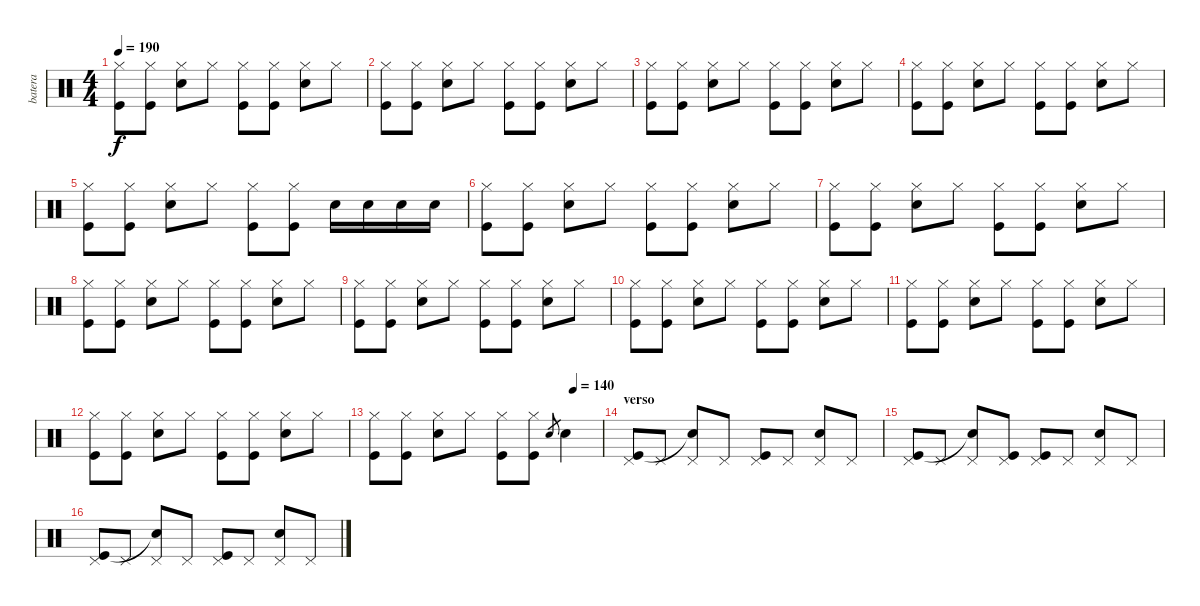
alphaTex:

\track ("batera" "batera") {instrument percussion}
\staff {score}
\articulation defaults
\ts (4 4)
\tempo 190
\clef neutral
\ks c
("Hi-Hat (closed)" "Kick (hit)").8{dy f} ("Hi-Hat (closed)" "Kick (hit)").8 ("Hi-Hat (closed)" "Snare (hit) 2").8 "Hi-Hat (closed)".8 ("Hi-Hat (closed)" "Kick (hit)").8 ("Hi-Hat (closed)" "Kick (hit)").8 ("Hi-Hat (closed)" "Snare (hit) 2").8 "Hi-Hat (closed)".8 |
("Hi-Hat (closed)" "Kick (hit)").8 ("Hi-Hat (closed)" "Kick (hit)").8 ("Hi-Hat (closed)" "Snare (hit) 2").8 "Hi-Hat (closed)".8 ("Hi-Hat (closed)" "Kick (hit)").8 ("Hi-Hat (closed)" "Kick (hit)").8 ("Hi-Hat (closed)" "Snare (hit) 2").8 "Hi-Hat (closed)".8 |
("Hi-Hat (closed)" "Kick (hit)").8 ("Hi-Hat (closed)" "Kick (hit)").8 ("Hi-Hat (closed)" "Snare (hit) 2").8 "Hi-Hat (closed)".8 ("Hi-Hat (closed)" "Kick (hit)").8 ("Hi-Hat (closed)" "Kick (hit)").8 ("Hi-Hat (closed)" "Snare (hit) 2").8 "Hi-Hat (closed)".8 |
("Hi-Hat (closed)" "Kick (hit)").8 ("Hi-Hat (closed)" "Kick (hit)").8 ("Hi-Hat (closed)" "Snare (hit) 2").8 "Hi-Hat (closed)".8 ("Hi-Hat (closed)" "Kick (hit)").8 ("Hi-Hat (closed)" "Kick (hit)").8 ("Hi-Hat (closed)" "Snare (hit) 2").8 "Hi-Hat (closed)".8 |
("Hi-Hat (closed)" "Kick (hit)").8 ("Hi-Hat (closed)" "Kick (hit)").8 ("Hi-Hat (closed)" "Snare (hit) 2").8 "Hi-Hat (closed)".8 ("Hi-Hat (closed)" "Kick (hit)").8 ("Hi-Hat (closed)" "Kick (hit)").8 "Snare (hit) 2".16 "Snare (hit) 2".16 "Snare (hit) 2".16 "Snare (hit) 2".16 |
("Hi-Hat (closed)" "Kick (hit)").8 ("Hi-Hat (closed)" "Kick (hit)").8 ("Hi-Hat (closed)" "Snare (hit) 2").8 "Hi-Hat (closed)".8 ("Hi-Hat (closed)" "Kick (hit)").8 ("Hi-Hat (closed)" "Kick (hit)").8 ("Hi-Hat (closed)" "Snare (hit) 2").8 "Hi-Hat (closed)".8 |
("Hi-Hat (closed)" "Kick (hit)").8 ("Hi-Hat (closed)" "Kick (hit)").8 ("Hi-Hat (closed)" "Snare (hit) 2").8 "Hi-Hat (closed)".8 ("Hi-Hat (closed)" "Kick (hit)").8 ("Hi-Hat (closed)" "Kick (hit)").8 ("Hi-Hat (closed)" "Snare (hit) 2").8 "Hi-Hat (closed)".8 |
("Hi-Hat (closed)" "Kick (hit)").8 ("Hi-Hat (closed)" "Kick (hit)").8 ("Hi-Hat (closed)" "Snare (hit) 2").8 "Hi-Hat (closed)".8 ("Hi-Hat (closed)" "Kick (hit)").8 ("Hi-Hat (closed)" "Kick (hit)").8 ("Hi-Hat (closed)" "Snare (hit) 2").8 "Hi-Hat (closed)".8 |
("Hi-Hat (closed)" "Kick (hit)").8 ("Hi-Hat (closed)" "Kick (hit)").8 ("Hi-Hat (closed)" "Snare (hit) 2").8 "Hi-Hat (closed)".8 ("Hi-Hat (closed)" "Kick (hit)").8 ("Hi-Hat (closed)" "Kick (hit)").8 ("Hi-Hat (closed)" "Snare (hit) 2").8 "Hi-Hat (closed)".8 |
("Hi-Hat (closed)" "Kick (hit)").8 ("Hi-Hat (closed)" "Kick (hit)").8 ("Hi-Hat (closed)" "Snare (hit) 2").8 "Hi-Hat (closed)".8 ("Hi-Hat (closed)" "Kick (hit)").8 ("Hi-Hat (closed)" "Kick (hit)").8 ("Hi-Hat (closed)" "Snare (hit) 2").8 "Hi-Hat (closed)".8 |
("Hi-Hat (closed)" "Kick (hit)").8 ("Hi-Hat (closed)" "Kick (hit)").8 ("Hi-Hat (closed)" "Snare (hit) 2").8 "Hi-Hat (closed)".8 ("Hi-Hat (closed)" "Kick (hit)").8 ("Hi-Hat (closed)" "Kick (hit)").8 ("Hi-Hat (closed)" "Snare (hit) 2").8 "Hi-Hat (closed)".8 |
("Hi-Hat (closed)" "Kick (hit)").8 ("Hi-Hat (closed)" "Kick (hit)").8 ("Hi-Hat (closed)" "Snare (hit) 2").8 "Hi-Hat (closed)".8 ("Hi-Hat (closed)" "Kick (hit)").8 ("Hi-Hat (closed)" "Kick (hit)").8 ("Hi-Hat (closed)" "Snare (hit) 2").8 "Hi-Hat (closed)".8 |
\tempo (140 0.875)
("Hi-Hat (closed)" "Kick (hit)").8 ("Hi-Hat (closed)" "Kick (hit)").8 ("Hi-Hat (closed)" "Snare (hit) 2").8 "Hi-Hat (closed)".8 ("Hi-Hat (closed)" "Kick (hit)").8 ("Hi-Hat (closed)" "Kick (hit)").8 "Snare (hit) 2"{sl}.8{gr} "Snare (hit) 2".4 |
\section ("" "verso")
("Pedal Hi-Hat (hit)" "Kick (hit)").8 "Pedal Hi-Hat (hit)".8 ("Pedal Hi-Hat (hit)" "Snare (hit)"{t}).8 "Pedal Hi-Hat (hit)".8 ("Pedal Hi-Hat (hit)" "Kick (hit)").8 "Pedal Hi-Hat (hit)".8 ("Pedal Hi-Hat (hit)" "Snare (hit) 2").8 "Pedal Hi-Hat (hit)".8 |
("Pedal Hi-Hat (hit)" "Kick (hit)").8 "Pedal Hi-Hat (hit)".8 ("Pedal Hi-Hat (hit)" "Snare (hit)"{t}).8 ("Pedal Hi-Hat (hit)" "Kick (hit)").8 ("Pedal Hi-Hat (hit)" "Kick (hit)").8 "Pedal Hi-Hat (hit)".8 ("Pedal Hi-Hat (hit)" "Snare (hit) 2").8 "Pedal Hi-Hat (hit)".8 |
("Pedal Hi-Hat (hit)" "Kick (hit)").8 "Pedal Hi-Hat (hit)".8 ("Pedal Hi-Hat (hit)" "Snare (hit)"{t}).8 "Pedal Hi-Hat (hit)".8 ("Pedal Hi-Hat (hit)" "Kick (hit)").8 "Pedal Hi-Hat (hit)".8 ("Pedal Hi-Hat (hit)" "Snare (hit) 2").8 "Pedal Hi-Hat (hit)".8
